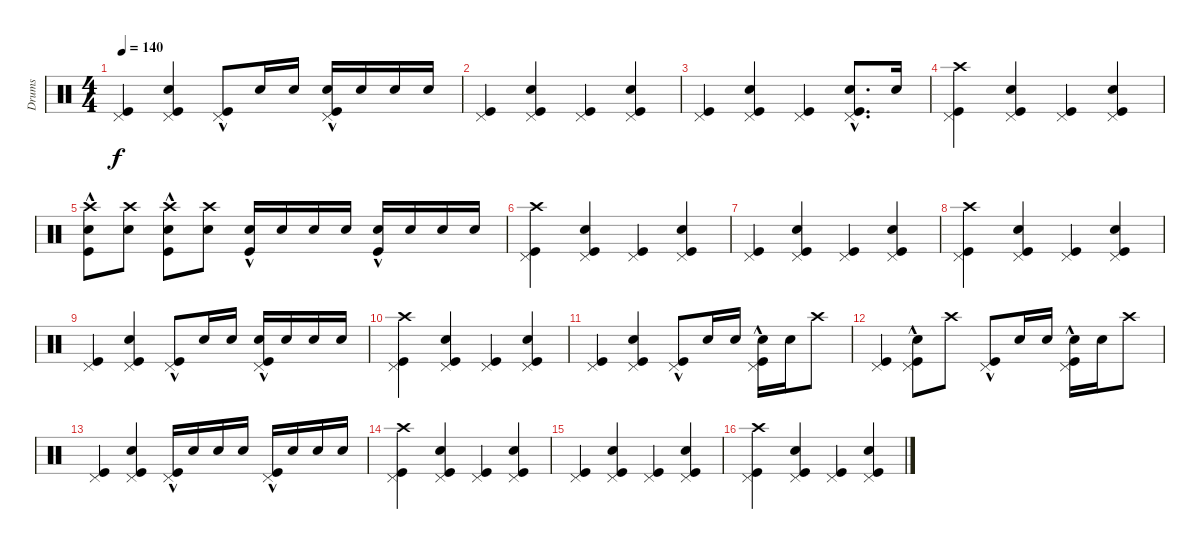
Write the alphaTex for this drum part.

\track ("Drums" "Drums") {instrument percussion}
\staff {score}
\articulation defaults
\ts (4 4)
\tempo 140
\clef neutral
\ks c
("Kick (hit)" "Pedal Hi-Hat (hit)").4{dy f} ("Kick (hit)" "Pedal Hi-Hat (hit)" "Snare (hit) 2").4 ("Kick (hit)"{hac} "Pedal Hi-Hat (hit)").8 "Snare (hit) 2".16 "Snare (hit) 2".16 ("Kick (hit)"{hac} "Pedal Hi-Hat (hit)" "Snare (hit) 2").16 "Snare (hit) 2".16 "Snare (hit) 2".16 "Snare (hit) 2".16 |
("Kick (hit)" "Pedal Hi-Hat (hit)").4 ("Kick (hit)" "Pedal Hi-Hat (hit)" "Snare (hit) 2").4 ("Kick (hit)" "Pedal Hi-Hat (hit)").4 ("Kick (hit)" "Pedal Hi-Hat (hit)" "Snare (hit) 2").4 |
("Kick (hit)" "Pedal Hi-Hat (hit)").4 ("Kick (hit)" "Pedal Hi-Hat (hit)" "Snare (hit) 2").4 ("Kick (hit)" "Pedal Hi-Hat (hit)").4 ("Kick (hit)"{hac} "Pedal Hi-Hat (hit)"{hac} "Snare (hit) 2").8{d} "Snare (hit) 2".16 |
("Kick (hit)" "Pedal Hi-Hat (hit)" "Crash high (hit)").4 ("Kick (hit)" "Pedal Hi-Hat (hit)" "Snare (hit) 2").4 ("Kick (hit)" "Pedal Hi-Hat (hit)").4 ("Kick (hit)" "Pedal Hi-Hat (hit)" "Snare (hit) 2").4 |
("Kick (hit)"{hac} "Crash high (hit)" "Snare (hit) 2").8 ("Crash high (hit)" "Snare (hit) 2").8 ("Kick (hit)"{hac} "Crash high (hit)" "Snare (hit) 2").8 ("Crash high (hit)" "Snare (hit) 2").8 ("Kick (hit)"{hac} "Snare (hit) 2").16 "Snare (hit) 2".16 "Snare (hit) 2".16 "Snare (hit) 2".16 ("Kick (hit)"{hac} "Snare (hit) 2").16 "Snare (hit) 2".16 "Snare (hit) 2".16 "Snare (hit) 2".16 |
("Kick (hit)" "Pedal Hi-Hat (hit)" "Crash high (hit)").4 ("Kick (hit)" "Pedal Hi-Hat (hit)" "Snare (hit) 2").4 ("Kick (hit)" "Pedal Hi-Hat (hit)").4 ("Kick (hit)" "Pedal Hi-Hat (hit)" "Snare (hit) 2").4 |
("Kick (hit)" "Pedal Hi-Hat (hit)").4 ("Kick (hit)" "Pedal Hi-Hat (hit)" "Snare (hit) 2").4 ("Kick (hit)" "Pedal Hi-Hat (hit)").4 ("Kick (hit)" "Pedal Hi-Hat (hit)" "Snare (hit) 2").4 |
("Kick (hit)" "Pedal Hi-Hat (hit)" "Crash high (hit)").4 ("Kick (hit)" "Pedal Hi-Hat (hit)" "Snare (hit) 2").4 ("Kick (hit)" "Pedal Hi-Hat (hit)").4 ("Kick (hit)" "Pedal Hi-Hat (hit)" "Snare (hit) 2").4 |
("Kick (hit)" "Pedal Hi-Hat (hit)").4 ("Kick (hit)" "Pedal Hi-Hat (hit)" "Snare (hit) 2").4 ("Kick (hit)"{hac} "Pedal Hi-Hat (hit)").8 "Snare (hit) 2".16 "Snare (hit) 2".16 ("Kick (hit)"{hac} "Snare (hit) 2" "Pedal Hi-Hat (hit)").16 "Snare (hit) 2".16 "Snare (hit) 2".16 "Snare (hit) 2".16 |
("Kick (hit)" "Pedal Hi-Hat (hit)" "Crash high (hit)").4 ("Kick (hit)" "Pedal Hi-Hat (hit)" "Snare (hit) 2").4 ("Kick (hit)" "Pedal Hi-Hat (hit)").4 ("Kick (hit)" "Pedal Hi-Hat (hit)" "Snare (hit) 2").4 |
("Kick (hit)" "Pedal Hi-Hat (hit)").4 ("Kick (hit)" "Pedal Hi-Hat (hit)" "Snare (hit) 2").4 ("Pedal Hi-Hat (hit)" "Kick (hit)"{hac}).8 "Snare (hit) 2".16 "Snare (hit) 2".16 ("Snare (hit) 2" "Pedal Hi-Hat (hit)" "Kick (hit)"{hac}).16 "Snare (hit) 2".16 "Crash high (hit)".8 |
("Kick (hit)" "Pedal Hi-Hat (hit)").4 ("Kick (hit)"{hac} "Snare (hit) 2" "Pedal Hi-Hat (hit)").8 "Crash high (hit)".8 ("Kick (hit)"{hac} "Pedal Hi-Hat (hit)").8 "Snare (hit) 2".16 "Snare (hit) 2".16 ("Kick (hit)"{hac} "Snare (hit) 2" "Pedal Hi-Hat (hit)").16 "Snare (hit) 2".16 "Crash high (hit)".8 |
("Kick (hit)" "Pedal Hi-Hat (hit)").4 ("Kick (hit)" "Pedal Hi-Hat (hit)" "Snare (hit) 2").4 ("Kick (hit)"{hac} "Pedal Hi-Hat (hit)").16 "Snare (hit) 2".16 "Snare (hit) 2".16 "Snare (hit) 2".16 ("Kick (hit)"{hac} "Pedal Hi-Hat (hit)").16 "Snare (hit) 2".16 "Snare (hit) 2".16 "Snare (hit) 2".16 |
("Kick (hit)" "Pedal Hi-Hat (hit)" "Crash high (hit)").4 ("Kick (hit)" "Pedal Hi-Hat (hit)" "Snare (hit) 2").4 ("Kick (hit)" "Pedal Hi-Hat (hit)").4 ("Kick (hit)" "Pedal Hi-Hat (hit)" "Snare (hit) 2").4 |
("Kick (hit)" "Pedal Hi-Hat (hit)").4 ("Kick (hit)" "Pedal Hi-Hat (hit)" "Snare (hit) 2").4 ("Kick (hit)" "Pedal Hi-Hat (hit)").4 ("Kick (hit)" "Pedal Hi-Hat (hit)" "Snare (hit) 2").4 |
("Kick (hit)" "Pedal Hi-Hat (hit)" "Crash high (hit)").4 ("Kick (hit)" "Pedal Hi-Hat (hit)" "Snare (hit) 2").4 ("Kick (hit)" "Pedal Hi-Hat (hit)").4 ("Kick (hit)" "Pedal Hi-Hat (hit)" "Snare (hit) 2").4
